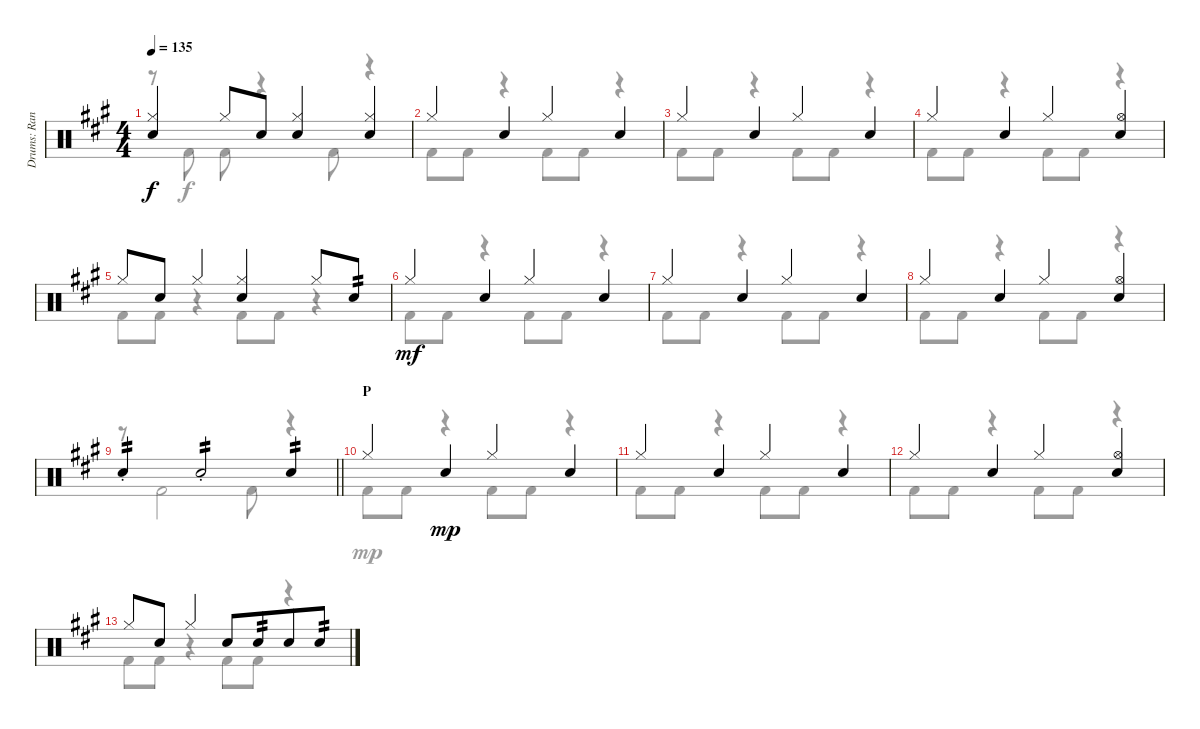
\track ("Drums: Randy" "Drums: Ran") {instrument percussion}
\staff {score}
\articulation defaults
\voice
\ts (4 4)
\tempo 135
\clef neutral
\ks a
("Hi-Hat (closed)" "Snare (hit) 2").4{dy f} "Hi-Hat (closed)".8 "Snare (hit) 2".8 ("Hi-Hat (closed)" "Snare (hit) 2").4 ("Hi-Hat (closed)" "Snare (hit) 2").4 |
"Hi-Hat (closed)".4 "Snare (hit) 2".4 "Hi-Hat (closed)".4 "Snare (hit) 2".4 |
"Hi-Hat (closed)".4 "Snare (hit) 2".4 "Hi-Hat (closed)".4 "Snare (hit) 2".4 |
"Hi-Hat (closed)".4 "Snare (hit) 2".4 "Hi-Hat (closed)".4 ("Hi-Hat (open)" "Snare (hit) 2").4 |
"Hi-Hat (closed)".8 "Snare (hit) 2".8 "Hi-Hat (closed)".4 ("Hi-Hat (closed)" "Snare (hit) 2").4 "Hi-Hat (closed)".8 "Snare (hit) 2".8{tp 2} |
"Hi-Hat (closed)".4{dy mf volume 8} "Snare (hit) 2".4 "Hi-Hat (closed)".4 "Snare (hit) 2".4 |
"Hi-Hat (closed)".4 "Snare (hit) 2".4 "Hi-Hat (closed)".4 "Snare (hit) 2".4 |
"Hi-Hat (closed)".4 "Snare (hit) 2".4 "Hi-Hat (closed)".4 ("Hi-Hat (open)" "Snare (hit) 2").4 |
\barLineRight lightlight "Snare (hit) 2"{st}.4{tp 2} "Snare (hit) 2"{st}.2{tp 2} "Snare (hit) 2".4{tp 2}
|
\section ("" "P")
"Hi-Hat (closed)".4{volume 0} "Snare (hit) 2".4{dy mp} "Hi-Hat (closed)".4 "Snare (hit) 2".4 |
"Hi-Hat (closed)".4 "Snare (hit) 2".4 "Hi-Hat (closed)".4 "Snare (hit) 2".4 |
"Hi-Hat (closed)".4 "Snare (hit) 2".4 "Hi-Hat (closed)".4 ("Hi-Hat (open)" "Snare (hit) 2").4 |
"Hi-Hat (closed)".8 "Snare (hit) 2".8 "Hi-Hat (closed)".4 "Snare (hit) 2".8 "Snare (hit) 2".8{tp 2 beam merge} "Snare (hit) 2".8 "Snare (hit) 2".8{tp 2}
\voice
\clef neutral
\ottava regular
\simile none
\ks a
r.8{dy f} "Kick (hit) 2".8 "Kick (hit) 2".8 r.4 "Kick (hit) 2".8 r.4 |
"Kick (hit) 2".8 "Kick (hit) 2".8 r.4 "Kick (hit) 2".8 "Kick (hit) 2".8 r.4 |
"Kick (hit) 2".8 "Kick (hit) 2".8 r.4 "Kick (hit) 2".8 "Kick (hit) 2".8 r.4 |
"Kick (hit) 2".8 "Kick (hit) 2".8 r.4 "Kick (hit) 2".8 "Kick (hit) 2".8 r.4 |
"Kick (hit) 2".8 "Kick (hit) 2".8 r.4 "Kick (hit) 2".8 "Kick (hit) 2".8 r.4 |
"Kick (hit) 2".8{dy mf} "Kick (hit) 2".8 r.4 "Kick (hit) 2".8 "Kick (hit) 2".8 r.4 |
"Kick (hit) 2".8 "Kick (hit) 2".8 r.4 "Kick (hit) 2".8 "Kick (hit) 2".8 r.4 |
"Kick (hit) 2".8 "Kick (hit) 2".8 r.4 "Kick (hit) 2".8 "Kick (hit) 2".8 r.4 |
\barLineRight lightlight
r.8 "Kick (hit) 2".2 "Kick (hit) 2".8 r.4 |
"Kick (hit) 2".8{dy mp} "Kick (hit) 2".8 r.4 "Kick (hit) 2".8 "Kick (hit) 2".8 r.4 |
"Kick (hit) 2".8 "Kick (hit) 2".8 r.4 "Kick (hit) 2".8 "Kick (hit) 2".8 r.4 |
"Kick (hit) 2".8 "Kick (hit) 2".8 r.4 "Kick (hit) 2".8 "Kick (hit) 2".8 r.4 |
"Kick (hit) 2".8 "Kick (hit) 2".8 r.4 "Kick (hit) 2".8 "Kick (hit) 2".8 r.4
